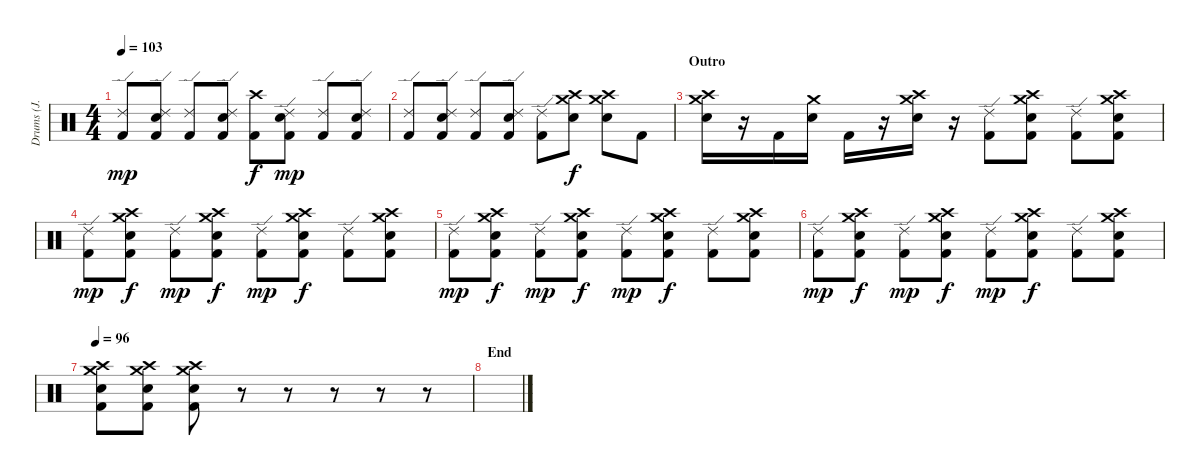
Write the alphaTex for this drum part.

\track ("Drums (J. Cramer)" "Drums (J. ") {instrument percussion}
\staff {score}
\articulation defaults
\ts (4 4)
\tempo 103
\clef neutral
\ks c
("Ride (edge) 2" "Kick (hit) 2").8{dy mp} ("Ride (edge) 2" "Electric Snare (hit)" "Kick (hit) 2").8 ("Ride (edge) 2" "Kick (hit) 2").8 ("Ride (edge) 2" "Electric Snare (hit)" "Kick (hit) 2").8 ("Crash high (hit)" "Kick (hit) 2").8{dy f} ("Ride (edge) 2" "Electric Snare (hit)" "Kick (hit) 2").8{dy mp} ("Ride (edge) 2" "Kick (hit) 2").8 ("Ride (edge) 2" "Electric Snare (hit)" "Kick (hit) 2").8 |
("Ride (edge) 2" "Kick (hit) 2").8 ("Ride (edge) 2" "Electric Snare (hit)" "Kick (hit) 2").8 ("Ride (edge) 2" "Kick (hit) 2").8 ("Ride (edge) 2" "Electric Snare (hit)" "Kick (hit) 2").8 ("Ride (edge) 2" "Kick (hit) 2").8 ("Crash high (hit)" "Crash medium (hit)" "Electric Snare (hit)").8{dy f} ("Crash high (hit)" "Crash medium (hit)" "Electric Snare (hit)").8 "Kick (hit) 2".8 |
\section ("" "Outro")
("Crash high (hit)" "Crash medium (hit)" "Electric Snare (hit)").16 r.16 "Kick (hit) 2".16 ("Crash medium (hit)" "Electric Snare (hit)").16 "Kick (hit) 2".16 r.16 ("Crash high (hit)" "Crash medium (hit)" "Electric Snare (hit)").16 r.16 ("Ride (edge) 2" "Kick (hit) 2").8 ("Crash high (hit)" "Crash medium (hit)" "Electric Snare (hit)" "Kick (hit) 2").8 ("Ride (edge) 2" "Kick (hit) 2").8 ("Crash high (hit)" "Crash medium (hit)" "Electric Snare (hit)" "Kick (hit) 2").8 |
("Ride (edge) 2" "Kick (hit) 2").8{dy mp} ("Crash high (hit)" "Crash medium (hit)" "Electric Snare (hit)" "Kick (hit) 2").8{dy f} ("Ride (edge) 2" "Kick (hit) 2").8{dy mp} ("Crash high (hit)" "Crash medium (hit)" "Electric Snare (hit)" "Kick (hit) 2").8{dy f} ("Ride (edge) 2" "Kick (hit) 2").8{dy mp} ("Crash high (hit)" "Crash medium (hit)" "Electric Snare (hit)" "Kick (hit) 2").8{dy f} ("Ride (edge) 2" "Kick (hit) 2").8 ("Crash high (hit)" "Crash medium (hit)" "Electric Snare (hit)" "Kick (hit) 2").8 |
("Ride (edge) 2" "Kick (hit) 2").8{dy mp} ("Crash high (hit)" "Crash medium (hit)" "Electric Snare (hit)" "Kick (hit) 2").8{dy f} ("Ride (edge) 2" "Kick (hit) 2").8{dy mp} ("Crash high (hit)" "Crash medium (hit)" "Electric Snare (hit)" "Kick (hit) 2").8{dy f} ("Ride (edge) 2" "Kick (hit) 2").8{dy mp} ("Crash high (hit)" "Crash medium (hit)" "Electric Snare (hit)" "Kick (hit) 2").8{dy f} ("Ride (edge) 2" "Kick (hit) 2").8 ("Crash high (hit)" "Crash medium (hit)" "Electric Snare (hit)" "Kick (hit) 2").8 |
("Ride (edge) 2" "Kick (hit) 2").8{dy mp} ("Crash high (hit)" "Crash medium (hit)" "Electric Snare (hit)" "Kick (hit) 2").8{dy f} ("Ride (edge) 2" "Kick (hit) 2").8{dy mp} ("Crash high (hit)" "Crash medium (hit)" "Electric Snare (hit)" "Kick (hit) 2").8{dy f} ("Ride (edge) 2" "Kick (hit) 2").8{dy mp} ("Crash high (hit)" "Crash medium (hit)" "Electric Snare (hit)" "Kick (hit) 2").8{dy f} ("Ride (edge) 2" "Kick (hit) 2").8 ("Crash high (hit)" "Crash medium (hit)" "Electric Snare (hit)" "Kick (hit) 2").8 |
\tempo 96
("Crash high (hit)" "Crash medium (hit)" "Electric Snare (hit)" "Kick (hit) 2").8 ("Crash high (hit)" "Crash medium (hit)" "Electric Snare (hit)" "Kick (hit) 2").8 ("Crash high (hit)" "Crash medium (hit)" "Electric Snare (hit)" "Kick (hit) 2").8 r.8 r.8 r.8 r.8 r.8 |
\section ("" "End")
